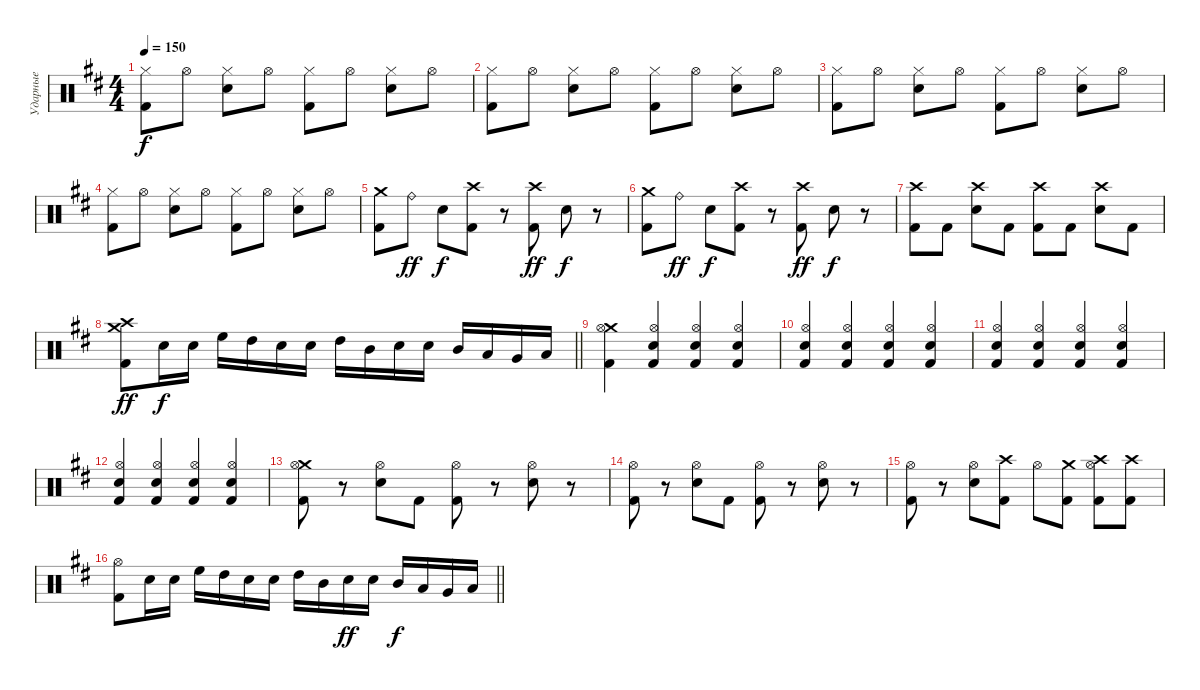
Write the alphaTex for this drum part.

\track ("Ударные" "Ударные") {instrument percussion}
\staff {score}
\articulation defaults
\ts (4 4)
\tempo 150
\clef neutral
\ks bminor
("Kick (hit) 2" "Hi-Hat (closed)").8{dy f} "Hi-Hat (open)".8 ("Electric Snare (hit)" "Hi-Hat (closed)").8 "Hi-Hat (open)".8 ("Kick (hit) 2" "Hi-Hat (closed)").8 "Hi-Hat (open)".8 ("Electric Snare (hit)" "Hi-Hat (closed)").8 "Hi-Hat (open)".8 |
("Kick (hit) 2" "Hi-Hat (closed)").8 "Hi-Hat (open)".8 ("Electric Snare (hit)" "Hi-Hat (closed)").8 "Hi-Hat (open)".8 ("Kick (hit) 2" "Hi-Hat (closed)").8 "Hi-Hat (open)".8 ("Electric Snare (hit)" "Hi-Hat (closed)").8 "Hi-Hat (open)".8 |
("Kick (hit) 2" "Hi-Hat (closed)").8 "Hi-Hat (open)".8 ("Electric Snare (hit)" "Hi-Hat (closed)").8 "Hi-Hat (open)".8 ("Kick (hit) 2" "Hi-Hat (closed)").8 "Hi-Hat (open)".8 ("Electric Snare (hit)" "Hi-Hat (closed)").8 "Hi-Hat (open)".8 |
("Kick (hit) 2" "Hi-Hat (closed)").8 "Hi-Hat (open)".8 ("Electric Snare (hit)" "Hi-Hat (closed)").8 "Hi-Hat (open)".8 ("Kick (hit) 2" "Hi-Hat (closed)").8 "Hi-Hat (open)".8 ("Electric Snare (hit)" "Hi-Hat (closed)").8 "Hi-Hat (open)".8 |
("Crash medium (hit)" "Kick (hit) 2").8 "Ride (bell)".8{dy ff} "Electric Snare (hit)".8{dy f} ("Crash high (hit)" "Kick (hit) 2").8 r.8 ("Crash high (hit)" "Kick (hit) 2").8{dy ff} "Electric Snare (hit)".8{dy f} r.8 |
("Crash medium (hit)" "Kick (hit) 2").8 "Ride (bell)".8{dy ff} "Electric Snare (hit)".8{dy f} ("Crash high (hit)" "Kick (hit) 2").8 r.8 ("Crash high (hit)" "Kick (hit) 2").8{dy ff} "Electric Snare (hit)".8{dy f} r.8 |
("Crash high (hit)" "Kick (hit) 2").8 "Kick (hit) 2".8 ("Crash high (hit)" "Electric Snare (hit)").8 "Kick (hit) 2".8 ("Crash high (hit)" "Kick (hit) 2").8 "Kick (hit) 2".8 ("Crash high (hit)" "Electric Snare (hit)").8 "Kick (hit) 2".8 |
\barLineRight lightlight
("Crash high (hit)" "Crash medium (hit)" "Kick (hit) 2").8{dy ff} "Electric Snare (hit)".16{dy f} "Electric Snare (hit)".16 "High Floor Tom (hit)".16 "High Tom (hit)".16 "Electric Snare (hit)".16 "Electric Snare (hit)".16 "High Tom (hit)".16 "Mid Tom (hit)".16 "Electric Snare (hit)".16 "Electric Snare (hit)".16 "Mid Tom (hit)".16 "Low Tom (hit)".16 "Very Low Tom (hit)".16 "Low Floor Tom (hit)".16 |
("Crash medium (hit)" "Kick (hit) 2" "Hi-Hat (open)").4 ("Electric Snare (hit)" "Hi-Hat (open)" "Kick (hit) 2").4 ("Electric Snare (hit)" "Hi-Hat (open)" "Kick (hit) 2").4 ("Electric Snare (hit)" "Hi-Hat (open)" "Kick (hit) 2").4 |
("Electric Snare (hit)" "Hi-Hat (open)" "Kick (hit) 2").4 ("Electric Snare (hit)" "Hi-Hat (open)" "Kick (hit) 2").4 ("Electric Snare (hit)" "Hi-Hat (open)" "Kick (hit) 2").4 ("Electric Snare (hit)" "Hi-Hat (open)" "Kick (hit) 2").4 |
("Electric Snare (hit)" "Hi-Hat (open)" "Kick (hit) 2").4 ("Electric Snare (hit)" "Hi-Hat (open)" "Kick (hit) 2").4 ("Electric Snare (hit)" "Hi-Hat (open)" "Kick (hit) 2").4 ("Electric Snare (hit)" "Hi-Hat (open)" "Kick (hit) 2").4 |
("Electric Snare (hit)" "Hi-Hat (open)" "Kick (hit) 2").4 ("Electric Snare (hit)" "Hi-Hat (open)" "Kick (hit) 2").4 ("Electric Snare (hit)" "Hi-Hat (open)" "Kick (hit) 2").4 ("Electric Snare (hit)" "Hi-Hat (open)" "Kick (hit) 2").4 |
("Crash medium (hit)" "Kick (hit) 2" "Hi-Hat (open)").8 r.8 ("Electric Snare (hit)" "Hi-Hat (open)").8 "Kick (hit) 2".8 ("Kick (hit) 2" "Hi-Hat (open)").8 r.8 ("Electric Snare (hit)" "Hi-Hat (open)").8 r.8 |
("Kick (hit) 2" "Hi-Hat (open)").8 r.8 ("Electric Snare (hit)" "Hi-Hat (open)").8 "Kick (hit) 2".8 ("Kick (hit) 2" "Hi-Hat (open)").8 r.8 ("Electric Snare (hit)" "Hi-Hat (open)").8 r.8 |
("Kick (hit) 2" "Hi-Hat (open)").8 r.8 ("Electric Snare (hit)" "Hi-Hat (open)").8 ("Crash high (hit)" "Kick (hit) 2").8 "Hi-Hat (open)".8 ("Crash medium (hit)" "Kick (hit) 2").8 ("Crash high (hit)" "Kick (hit) 2" "Hi-Hat (open)").8 ("Crash high (hit)" "Kick (hit) 2").8 |
\barLineRight lightlight
("Hi-Hat (open)" "Kick (hit) 2").8 "Electric Snare (hit)".16 "Electric Snare (hit)".16 "High Floor Tom (hit)".16 "High Tom (hit)".16 "Electric Snare (hit)".16 "Electric Snare (hit)".16 "High Tom (hit)".16 "Mid Tom (hit)".16 "Electric Snare (hit)".16{dy ff} "Electric Snare (hit)".16 "Mid Tom (hit)".16{dy f} "Low Tom (hit)".16 "Very Low Tom (hit)".16 "Low Floor Tom (hit)".16
